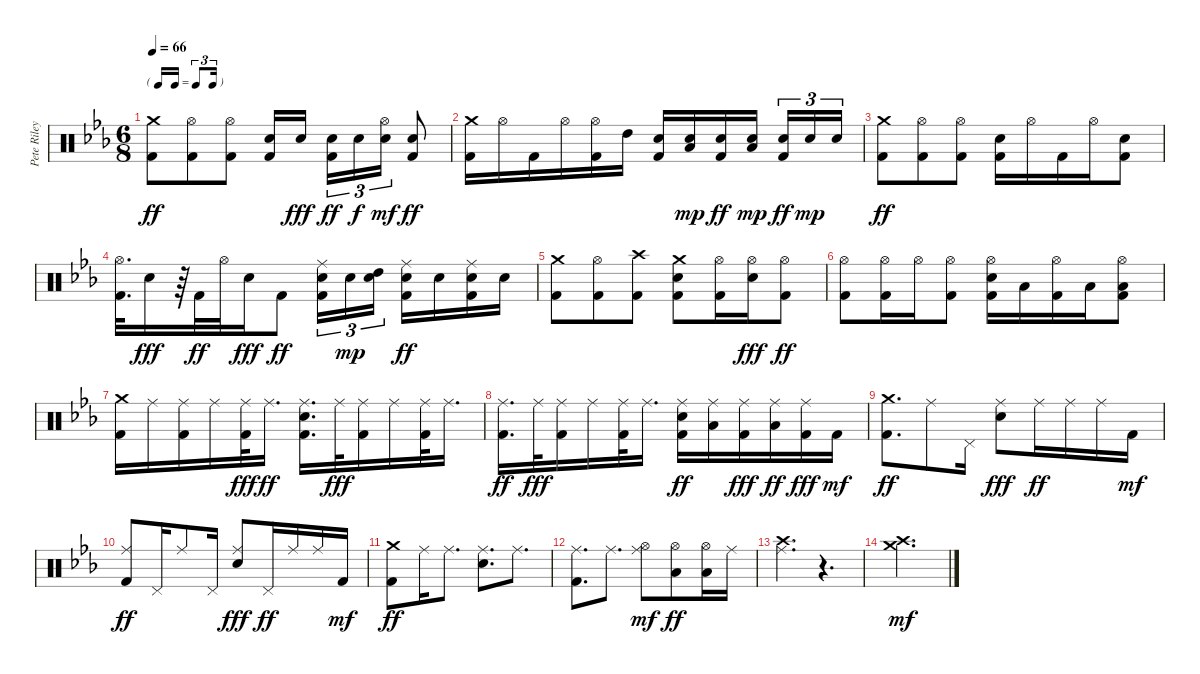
\track ("Pete Riley, Drums" "Pete Riley") {instrument percussion}
\staff {score}
\articulation defaults
\ts (6 8)
\tf triplet16th
\tempo 66
\clef neutral
\ks cminor
("Crash medium (hit)" "Kick (hit) 2").8{dy ff} ("Hi-Hat (open)" "Kick (hit) 2").8 ("Hi-Hat (open)" "Kick (hit) 2").8 ("Snare (hit) 2" "Kick (hit) 2").16 "Snare (hit) 2".16{dy fff beam splitsecondary} ("Snare (hit) 2" "Kick (hit) 2").16{tu (3 2) dy ff} "Snare (hit) 2".16{tu (3 2) dy f} ("Hi-Hat (open)" "Snare (hit) 2").16{tu (3 2) dy mf} ("Snare (hit) 2" "Kick (hit) 2").8{dy ff} |
("Crash medium (hit)" "Kick (hit) 2").16 "Hi-Hat (open)".16 "Kick (hit) 2".16 "Hi-Hat (open)".16 ("Hi-Hat (open)" "Kick (hit) 2").16 "High Tom (hit)".16 ("Snare (hit) 2" "Kick (hit) 2").16 ("Low Tom (hit)" "Snare (hit) 2").16{dy mp} ("Snare (hit) 2" "Kick (hit) 2").16{dy ff} ("Low Floor Tom (hit)" "Snare (hit) 2").16{dy mp beam splitsecondary} ("Snare (hit) 2" "Kick (hit) 2").16{tu (3 2) dy ff} "Snare (hit) 2".16{tu (3 2) dy mp} "Snare (hit) 2".16{tu (3 2)} |
("Crash medium (hit)" "Kick (hit) 2").8{dy ff} ("Hi-Hat (open)" "Kick (hit) 2").8 ("Hi-Hat (open)" "Kick (hit) 2").8 ("Snare (hit) 2" "Kick (hit) 2").16 "Hi-Hat (open)".16 "Kick (hit) 2".16 "Hi-Hat (open)".16 ("Snare (hit) 2" "Kick (hit) 2").8 |
("Hi-Hat (open)" "Kick (hit) 2").32{d} "Snare (hit) 2".16{dy fff} r.64 "Kick (hit) 2".32{dy ff} "Hi-Hat (open)".32 "Snare (hit) 2".16{dy fff} "Kick (hit) 2".8{dy ff} ("Ride (middle)" "Snare (hit) 2" "Kick (hit) 2").16{tu (3 2)} "Snare (hit) 2".16{tu (3 2) dy mp} ("High Tom (hit)" "Snare (hit) 2").16{tu (3 2) beam splitsecondary} ("Ride (middle)" "Snare (hit) 2" "Kick (hit) 2").16{dy ff} "Snare (hit) 2".16 ("Ride (middle)" "Snare (hit) 2" "Kick (hit) 2").16 "Snare (hit) 2".16 |
("Crash medium (hit)" "Kick (hit) 2").8 ("Hi-Hat (open)" "Kick (hit) 2").8 ("Crash high (hit)" "Kick (hit) 2").8 ("Crash medium (hit)" "Snare (hit) 2" "Kick (hit) 2").8 ("Hi-Hat (open)" "Kick (hit) 2").16 ("Hi-Hat (open)" "Snare (hit) 2").16{dy fff} ("Hi-Hat (open)" "Kick (hit) 2").8{dy ff} |
("Hi-Hat (open)" "Kick (hit) 2").8 ("Hi-Hat (open)" "Kick (hit) 2").16 "Hi-Hat (open)".16 ("Hi-Hat (open)" "Kick (hit) 2").8 ("Hi-Hat (open)" "Snare (hit) 2" "Kick (hit) 2").16 "Low Tom (hit)".16 ("Hi-Hat (open)" "Kick (hit) 2").16 "Low Floor Tom (hit)".16 ("Hi-Hat (open)" "Low Floor Tom (hit)" "Kick (hit) 2").8 |
("Crash medium (hit)" "Kick (hit) 2").16 "Ride (middle)".16 ("Ride (middle)" "Kick (hit) 2").16 "Ride (middle)".16 ("Ride (middle)" "Kick (hit) 2").32{dy fff} "Ride (middle)".16{d dy ff} ("Ride (middle)" "Snare (hit) 2" "Kick (hit) 2").16{d} "Ride (middle)".32{dy fff} ("Ride (middle)" "Kick (hit) 2").16 "Ride (middle)".16 ("Ride (middle)" "Kick (hit) 2").32 "Ride (middle)".16{d} |
("Ride (middle)" "Kick (hit) 2").16{d dy ff} "Ride (middle)".32{dy fff} ("Ride (middle)" "Kick (hit) 2").16 "Ride (middle)".16 ("Ride (middle)" "Kick (hit) 2").32 "Ride (middle)".16{d} ("Ride (middle)" "Snare (hit) 2" "Kick (hit) 2").16{dy ff} ("Ride (middle)" "Low Tom (hit)").16 ("Ride (middle)" "Kick (hit) 2").16{dy fff} ("Ride (middle)" "Low Floor Tom (hit)").16{dy ff} ("Ride (middle)" "Kick (hit) 2").16{dy fff} "Kick (hit) 2".16{dy mf} |
("Crash medium (hit)" "Kick (hit) 2").8{d dy ff} "Ride (middle)".8 "Pedal Hi-Hat (hit)".16 ("Ride (middle)" "Snare (hit) 2").8{dy fff} "Ride (middle)".16{dy ff} "Ride (middle)".16 "Ride (middle)".16 "Kick (hit) 2".16{dy mf} |
("Ride (middle)" "Kick (hit) 2").8{dy ff} "Pedal Hi-Hat (hit)".16 "Ride (middle)".8 "Pedal Hi-Hat (hit)".16 ("Ride (middle)" "Snare (hit) 2").8{dy fff} "Pedal Hi-Hat (hit)".16{dy ff} "Ride (middle)".16 "Ride (middle)".16 "Kick (hit) 2".16{dy mf} |
("Crash medium (hit)" "Kick (hit) 2").8{dy ff} "Ride (middle)".16 "Ride (middle)".8{d} ("Ride (middle)" "Snare (hit) 2").8{d} "Ride (middle)".8{d} |
\ks eb
("Ride (middle)" "Kick (hit) 2").8{d} "Ride (middle)".8{d} ("Ride (middle)" "Hi-Hat (open)").8{dy mf} ("Hi-Hat (open)" "Low Tom (hit)").8{dy ff} ("Hi-Hat (open)" "Low Floor Tom (hit)").16 "Ride (middle)".16 |
("Crash high (hit)" "Ride (middle)").4{d} r.4{d} |
("Crash medium (hit)" "Crash high (hit)").2{d dy mf}
